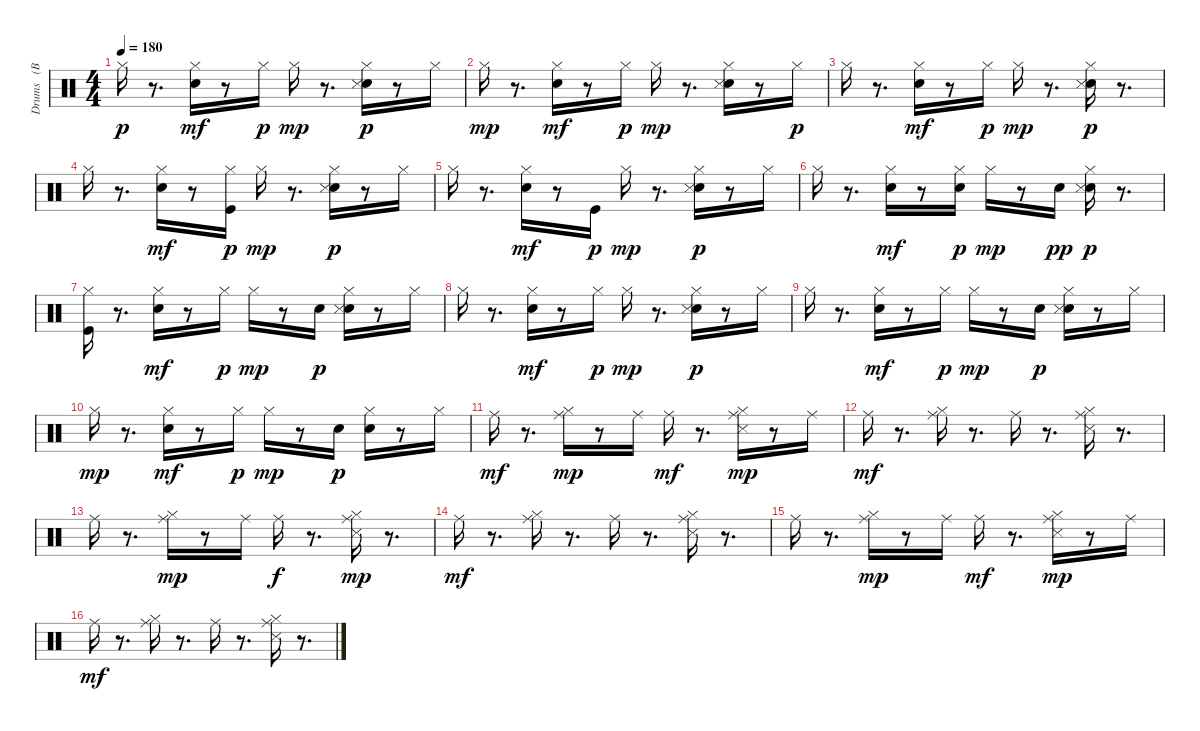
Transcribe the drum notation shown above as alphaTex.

\track ("Drums   (BB)" "Drums   (B") {instrument percussion}
\staff {score}
\articulation defaults
\ts (4 4)
\tempo 180
\clef neutral
\ks c "Hi-Hat (closed)".16{dy p}
r.8{d} ("Snare (hit) 2" "Hi-Hat (closed)").16{dy mf} r.8 "Hi-Hat (closed)".16{dy p} "Hi-Hat (closed)".16{dy mp} r.8{d} ("Snare (hit) 2" "Hi-Hat (closed)" "Snare (side stick) 3").16{dy p} r.8 "Hi-Hat (closed)".16 |
"Hi-Hat (closed)".16{dy mp} r.8{d} ("Snare (hit) 2" "Hi-Hat (closed)").16{dy mf} r.8 "Hi-Hat (closed)".16{dy p} "Hi-Hat (closed)".16{dy mp} r.8{d} ("Snare (hit) 2" "Hi-Hat (closed)" "Snare (side stick) 3").16 r.8 "Hi-Hat (closed)".16{dy p} |
"Hi-Hat (closed)".16 r.8{d} ("Snare (hit) 2" "Hi-Hat (closed)").16{dy mf} r.8 "Hi-Hat (closed)".16{dy p} "Hi-Hat (closed)".16{dy mp} r.8{d} ("Snare (hit) 2" "Hi-Hat (closed)" "Snare (side stick) 3").16{dy p} r.8{d} |
"Hi-Hat (closed)".16 r.8{d} ("Snare (hit) 2" "Hi-Hat (closed)").16{dy mf} r.8 ("Kick (hit)" "Hi-Hat (closed)").16{dy p} "Hi-Hat (closed)".16{dy mp} r.8{d} ("Snare (hit) 2" "Hi-Hat (closed)" "Snare (side stick) 3").16{dy p} r.8 "Hi-Hat (closed)".16 |
"Hi-Hat (closed)".16 r.8{d} ("Snare (hit) 2" "Hi-Hat (closed)").16{dy mf} r.8 "Kick (hit)".16{dy p} "Hi-Hat (closed)".16{dy mp} r.8{d} ("Snare (hit) 2" "Hi-Hat (closed)" "Snare (side stick) 3").16{dy p} r.8 "Hi-Hat (closed)".16 |
"Hi-Hat (closed)".16 r.8{d} ("Snare (hit) 2" "Hi-Hat (closed)").16{dy mf} r.8 ("Snare (hit) 2" "Hi-Hat (closed)").16{dy p} "Hi-Hat (closed)".16{dy mp} r.8 "Snare (hit) 2".16{dy pp} ("Snare (hit) 2" "Hi-Hat (closed)" "Snare (side stick) 3").16{dy p} r.8{d} |
("Kick (hit)" "Hi-Hat (closed)").16 r.8{d} ("Snare (hit) 2" "Hi-Hat (closed)").16{dy mf} r.8 "Hi-Hat (closed)".16{dy p} "Hi-Hat (closed)".16{dy mp} r.8 "Snare (hit) 2".16{dy p} ("Snare (hit) 2" "Hi-Hat (closed)" "Snare (side stick) 3").16 r.8 "Hi-Hat (closed)".16 |
"Hi-Hat (closed)".16 r.8{d} ("Snare (hit) 2" "Hi-Hat (closed)").16{dy mf} r.8 "Hi-Hat (closed)".16{dy p} "Hi-Hat (closed)".16{dy mp} r.8{d} ("Snare (hit) 2" "Hi-Hat (closed)" "Snare (side stick) 3").16{dy p} r.8 "Hi-Hat (closed)".16 |
"Hi-Hat (closed)".16 r.8{d} ("Snare (hit) 2" "Hi-Hat (closed)").16{dy mf} r.8 "Hi-Hat (closed)".16{dy p} "Hi-Hat (closed)".16{dy mp} r.8 "Snare (hit) 2".16{dy p} ("Snare (hit) 2" "Hi-Hat (closed)" "Snare (side stick) 3").16 r.8 "Hi-Hat (closed)".16 |
"Hi-Hat (closed)".16{dy mp} r.8{d} ("Snare (hit) 2" "Hi-Hat (closed)").16{dy mf} r.8 "Hi-Hat (closed)".16{dy p} "Hi-Hat (closed)".16{dy mp} r.8 "Snare (hit) 2".16{dy p} ("Snare (hit) 2" "Hi-Hat (closed)").16 r.8 "Hi-Hat (closed)".16 |
"Ride (middle)".16{dy mf} r.8{d} ("Hi-Hat (closed)" "Ride (middle)").16{dy mp} r.8 "Ride (middle)".16 "Ride (middle)".16{dy mf} r.8{d} ("Hi-Hat (closed)" "Snare (side stick) 3" "Ride (middle)").16{dy mp} r.8 "Ride (middle)".16 |
"Ride (middle)".16{dy mf} r.8{d} ("Hi-Hat (closed)" "Ride (middle)").16 r.8{d} "Ride (middle)".16 r.8{d} ("Hi-Hat (closed)" "Snare (side stick) 3" "Ride (middle)").16 r.8{d} |
"Ride (middle)".16 r.8{d} ("Hi-Hat (closed)" "Ride (middle)").16{dy mp} r.8 "Ride (middle)".16 "Ride (middle)".16{dy f} r.8{d} ("Hi-Hat (closed)" "Snare (side stick) 3" "Ride (middle)").16{dy mp} r.8{d} |
"Ride (middle)".16{dy mf} r.8{d} ("Hi-Hat (closed)" "Ride (middle)").16 r.8{d} "Ride (middle)".16 r.8{d} ("Hi-Hat (closed)" "Snare (side stick) 3" "Ride (middle)").16 r.8{d} |
"Ride (middle)".16 r.8{d} ("Hi-Hat (closed)" "Ride (middle)").16{dy mp} r.8 "Ride (middle)".16 "Ride (middle)".16{dy mf} r.8{d} ("Hi-Hat (closed)" "Snare (side stick) 3" "Ride (middle)").16{dy mp} r.8 "Ride (middle)".16 |
"Ride (middle)".16{dy mf} r.8{d} ("Hi-Hat (closed)" "Ride (middle)").16 r.8{d} "Ride (middle)".16 r.8{d} ("Hi-Hat (closed)" "Snare (side stick) 3" "Ride (middle)").16 r.8{d}
